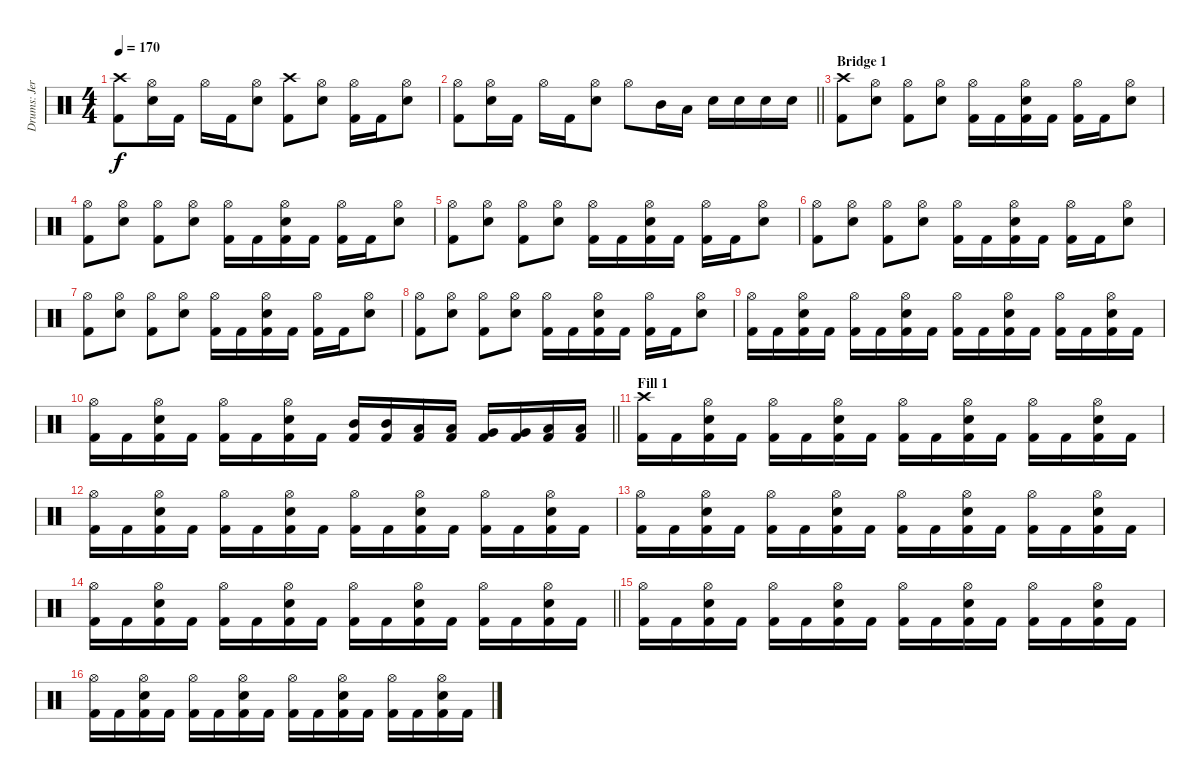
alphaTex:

\track ("Drums: Jere Luokkamäki" "Drums: Jer") {instrument percussion}
\staff {score}
\articulation defaults
\ts (4 4)
\tempo 170
\clef neutral
\ks aminor
("Crash high (hit)" "Kick (hit) 2").8{dy f} ("Hi-Hat (open)" "Electric Snare (hit)").16 "Kick (hit) 2".16 "Hi-Hat (open)".16 "Kick (hit) 2".16 ("Hi-Hat (open)" "Electric Snare (hit)").8 ("Crash high (hit)" "Kick (hit) 2").8 ("Hi-Hat (open)" "Electric Snare (hit)").8 ("Hi-Hat (open)" "Kick (hit) 2").16 "Kick (hit) 2".16 ("Hi-Hat (open)" "Electric Snare (hit)").8 |
\barLineRight lightlight
("Hi-Hat (open)" "Kick (hit) 2").8 ("Hi-Hat (open)" "Electric Snare (hit)").16 "Kick (hit) 2".16 "Hi-Hat (open)".16 "Kick (hit) 2".16 ("Hi-Hat (open)" "Electric Snare (hit)").8 "Hi-Hat (open)".8 "Mid Tom (hit)".16 "Low Tom (hit)".16 "Electric Snare (hit)".16 "Electric Snare (hit)".16 "Electric Snare (hit)".16 "Electric Snare (hit)".16 |
\section ("" "Bridge 1")
("Crash high (hit)" "Kick (hit) 2").8 ("Hi-Hat (open)" "Electric Snare (hit)").8 ("Hi-Hat (open)" "Kick (hit) 2").8 ("Hi-Hat (open)" "Electric Snare (hit)").8 ("Hi-Hat (open)" "Kick (hit) 2").16 "Kick (hit) 2".16 ("Hi-Hat (open)" "Electric Snare (hit)" "Kick (hit) 2").16 "Kick (hit) 2".16 ("Hi-Hat (open)" "Kick (hit) 2").16 "Kick (hit) 2".16 ("Hi-Hat (open)" "Electric Snare (hit)").8 |
("Hi-Hat (open)" "Kick (hit) 2").8 ("Hi-Hat (open)" "Electric Snare (hit)").8 ("Hi-Hat (open)" "Kick (hit) 2").8 ("Hi-Hat (open)" "Electric Snare (hit)").8 ("Hi-Hat (open)" "Kick (hit) 2").16 "Kick (hit) 2".16 ("Hi-Hat (open)" "Electric Snare (hit)" "Kick (hit) 2").16 "Kick (hit) 2".16 ("Hi-Hat (open)" "Kick (hit) 2").16 "Kick (hit) 2".16 ("Hi-Hat (open)" "Electric Snare (hit)").8 |
("Hi-Hat (open)" "Kick (hit) 2").8 ("Hi-Hat (open)" "Electric Snare (hit)").8 ("Hi-Hat (open)" "Kick (hit) 2").8 ("Hi-Hat (open)" "Electric Snare (hit)").8 ("Hi-Hat (open)" "Kick (hit) 2").16 "Kick (hit) 2".16 ("Hi-Hat (open)" "Electric Snare (hit)" "Kick (hit) 2").16 "Kick (hit) 2".16 ("Hi-Hat (open)" "Kick (hit) 2").16 "Kick (hit) 2".16 ("Hi-Hat (open)" "Electric Snare (hit)").8 |
("Hi-Hat (open)" "Kick (hit) 2").8 ("Hi-Hat (open)" "Electric Snare (hit)").8 ("Hi-Hat (open)" "Kick (hit) 2").8 ("Hi-Hat (open)" "Electric Snare (hit)").8 ("Hi-Hat (open)" "Kick (hit) 2").16 "Kick (hit) 2".16 ("Hi-Hat (open)" "Electric Snare (hit)" "Kick (hit) 2").16 "Kick (hit) 2".16 ("Hi-Hat (open)" "Kick (hit) 2").16 "Kick (hit) 2".16 ("Hi-Hat (open)" "Electric Snare (hit)").8 |
("Hi-Hat (open)" "Kick (hit) 2").8 ("Hi-Hat (open)" "Electric Snare (hit)").8 ("Hi-Hat (open)" "Kick (hit) 2").8 ("Hi-Hat (open)" "Electric Snare (hit)").8 ("Hi-Hat (open)" "Kick (hit) 2").16 "Kick (hit) 2".16 ("Hi-Hat (open)" "Electric Snare (hit)" "Kick (hit) 2").16 "Kick (hit) 2".16 ("Hi-Hat (open)" "Kick (hit) 2").16 "Kick (hit) 2".16 ("Hi-Hat (open)" "Electric Snare (hit)").8 |
("Hi-Hat (open)" "Kick (hit) 2").8 ("Hi-Hat (open)" "Electric Snare (hit)").8 ("Hi-Hat (open)" "Kick (hit) 2").8 ("Hi-Hat (open)" "Electric Snare (hit)").8 ("Hi-Hat (open)" "Kick (hit) 2").16 "Kick (hit) 2".16 ("Hi-Hat (open)" "Electric Snare (hit)" "Kick (hit) 2").16 "Kick (hit) 2".16 ("Hi-Hat (open)" "Kick (hit) 2").16 "Kick (hit) 2".16 ("Hi-Hat (open)" "Electric Snare (hit)").8 |
("Hi-Hat (open)" "Kick (hit) 2").16 "Kick (hit) 2".16 ("Hi-Hat (open)" "Electric Snare (hit)" "Kick (hit) 2").16 "Kick (hit) 2".16 ("Hi-Hat (open)" "Kick (hit) 2").16 "Kick (hit) 2".16 ("Hi-Hat (open)" "Electric Snare (hit)" "Kick (hit) 2").16 "Kick (hit) 2".16 ("Hi-Hat (open)" "Kick (hit) 2").16 "Kick (hit) 2".16 ("Hi-Hat (open)" "Electric Snare (hit)" "Kick (hit) 2").16 "Kick (hit) 2".16 ("Hi-Hat (open)" "Kick (hit) 2").16 "Kick (hit) 2".16 ("Hi-Hat (open)" "Electric Snare (hit)" "Kick (hit) 2").16 "Kick (hit) 2".16 |
\barLineRight lightlight
("Hi-Hat (open)" "Kick (hit) 2").16 "Kick (hit) 2".16 ("Hi-Hat (open)" "Electric Snare (hit)" "Kick (hit) 2").16 "Kick (hit) 2".16 ("Hi-Hat (open)" "Kick (hit) 2").16 "Kick (hit) 2".16 ("Hi-Hat (open)" "Electric Snare (hit)" "Kick (hit) 2").16 "Kick (hit) 2".16 ("Mid Tom (hit)" "Kick (hit) 2").16 ("Mid Tom (hit)" "Kick (hit) 2").16 ("Low Tom (hit)" "Kick (hit) 2").16 ("Low Tom (hit)" "Kick (hit) 2").16 ("Very Low Tom (hit)" "Kick (hit) 2").16 ("Very Low Tom (hit)" "Kick (hit) 2").16 ("Low Tom (hit)" "Kick (hit) 2").16 ("Low Tom (hit)" "Kick (hit) 2").16 |
\section ("" "Fill 1")
("Crash high (hit)" "Kick (hit) 2").16 "Kick (hit) 2".16 ("Hi-Hat (open)" "Electric Snare (hit)" "Kick (hit) 2").16 "Kick (hit) 2".16 ("Hi-Hat (open)" "Kick (hit) 2").16 "Kick (hit) 2".16 ("Hi-Hat (open)" "Electric Snare (hit)" "Kick (hit) 2").16 "Kick (hit) 2".16 ("Hi-Hat (open)" "Kick (hit) 2").16 "Kick (hit) 2".16 ("Hi-Hat (open)" "Electric Snare (hit)" "Kick (hit) 2").16 "Kick (hit) 2".16 ("Hi-Hat (open)" "Kick (hit) 2").16 "Kick (hit) 2".16 ("Hi-Hat (open)" "Electric Snare (hit)" "Kick (hit) 2").16 "Kick (hit) 2".16 |
("Hi-Hat (open)" "Kick (hit) 2").16 "Kick (hit) 2".16 ("Hi-Hat (open)" "Electric Snare (hit)" "Kick (hit) 2").16 "Kick (hit) 2".16 ("Hi-Hat (open)" "Kick (hit) 2").16 "Kick (hit) 2".16 ("Hi-Hat (open)" "Electric Snare (hit)" "Kick (hit) 2").16 "Kick (hit) 2".16 ("Hi-Hat (open)" "Kick (hit) 2").16 "Kick (hit) 2".16 ("Hi-Hat (open)" "Electric Snare (hit)" "Kick (hit) 2").16 "Kick (hit) 2".16 ("Hi-Hat (open)" "Kick (hit) 2").16 "Kick (hit) 2".16 ("Hi-Hat (open)" "Electric Snare (hit)" "Kick (hit) 2").16 "Kick (hit) 2".16 |
("Hi-Hat (open)" "Kick (hit) 2").16 "Kick (hit) 2".16 ("Hi-Hat (open)" "Electric Snare (hit)" "Kick (hit) 2").16 "Kick (hit) 2".16 ("Hi-Hat (open)" "Kick (hit) 2").16 "Kick (hit) 2".16 ("Hi-Hat (open)" "Electric Snare (hit)" "Kick (hit) 2").16 "Kick (hit) 2".16 ("Hi-Hat (open)" "Kick (hit) 2").16 "Kick (hit) 2".16 ("Hi-Hat (open)" "Electric Snare (hit)" "Kick (hit) 2").16 "Kick (hit) 2".16 ("Hi-Hat (open)" "Kick (hit) 2").16 "Kick (hit) 2".16 ("Hi-Hat (open)" "Electric Snare (hit)" "Kick (hit) 2").16 "Kick (hit) 2".16 |
\barLineRight lightlight
("Hi-Hat (open)" "Kick (hit) 2").16 "Kick (hit) 2".16 ("Hi-Hat (open)" "Electric Snare (hit)" "Kick (hit) 2").16 "Kick (hit) 2".16 ("Hi-Hat (open)" "Kick (hit) 2").16 "Kick (hit) 2".16 ("Hi-Hat (open)" "Electric Snare (hit)" "Kick (hit) 2").16 "Kick (hit) 2".16 ("Hi-Hat (open)" "Kick (hit) 2").16 "Kick (hit) 2".16 ("Hi-Hat (open)" "Electric Snare (hit)" "Kick (hit) 2").16 "Kick (hit) 2".16 ("Hi-Hat (open)" "Kick (hit) 2").16 "Kick (hit) 2".16 ("Hi-Hat (open)" "Electric Snare (hit)" "Kick (hit) 2").16 "Kick (hit) 2".16 |
("Hi-Hat (open)" "Kick (hit) 2").16 "Kick (hit) 2".16 ("Hi-Hat (open)" "Electric Snare (hit)" "Kick (hit) 2").16 "Kick (hit) 2".16 ("Hi-Hat (open)" "Kick (hit) 2").16 "Kick (hit) 2".16 ("Hi-Hat (open)" "Electric Snare (hit)" "Kick (hit) 2").16 "Kick (hit) 2".16 ("Hi-Hat (open)" "Kick (hit) 2").16 "Kick (hit) 2".16 ("Hi-Hat (open)" "Electric Snare (hit)" "Kick (hit) 2").16 "Kick (hit) 2".16 ("Hi-Hat (open)" "Kick (hit) 2").16 "Kick (hit) 2".16 ("Hi-Hat (open)" "Electric Snare (hit)" "Kick (hit) 2").16 "Kick (hit) 2".16 |
("Hi-Hat (open)" "Kick (hit) 2").16 "Kick (hit) 2".16 ("Hi-Hat (open)" "Electric Snare (hit)" "Kick (hit) 2").16 "Kick (hit) 2".16 ("Hi-Hat (open)" "Kick (hit) 2").16 "Kick (hit) 2".16 ("Hi-Hat (open)" "Electric Snare (hit)" "Kick (hit) 2").16 "Kick (hit) 2".16 ("Hi-Hat (open)" "Kick (hit) 2").16 "Kick (hit) 2".16 ("Hi-Hat (open)" "Electric Snare (hit)" "Kick (hit) 2").16 "Kick (hit) 2".16 ("Hi-Hat (open)" "Kick (hit) 2").16 "Kick (hit) 2".16 ("Hi-Hat (open)" "Electric Snare (hit)" "Kick (hit) 2").16 "Kick (hit) 2".16
